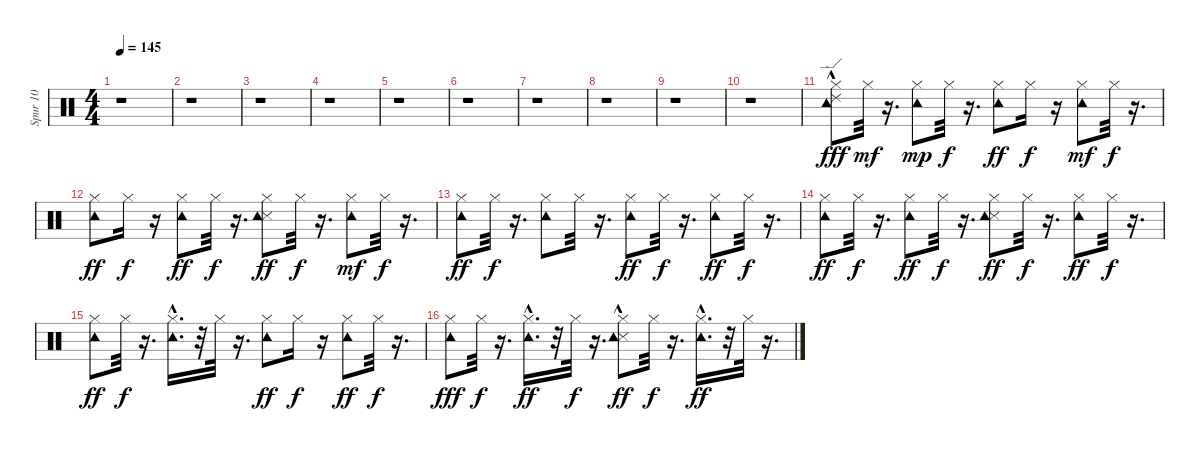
\track ("Spur 10" "Spur 10") {instrument percussion}
\staff {score}
\articulation defaults
\ts (4 4)
\tempo 145
\clef neutral
\ks c
r.1{dy fff} |
r.1 |
r.1 |
r.1 |
r.1 |
r.1 |
r.1 |
r.1 |
r.1 |
r.1 |
("Tambourine (hit)" "Hi-Hat (closed)" "Ride (edge) 2"{hac}).8 "Hi-Hat (closed)".32{dy mf} r.16{d} ("Tambourine (hit)" "Hi-Hat (closed)").8{dy mp} "Hi-Hat (closed)".32{dy f} r.16{d} ("Tambourine (hit)" "Hi-Hat (closed)").8{dy ff} "Hi-Hat (closed)".16{dy f} r.16 ("Tambourine (hit)" "Hi-Hat (closed)").8{dy mf} "Hi-Hat (closed)".32{dy f} r.16{d} |
("Tambourine (hit)" "Hi-Hat (closed)").8{dy ff} "Hi-Hat (closed)".16{dy f} r.16 ("Hi-Hat (closed)" "Tambourine (hit)").8{dy ff} "Hi-Hat (closed)".32{dy f} r.16{d} ("Snare (side stick) 3" "Tambourine (hit)" "Hi-Hat (closed)").8{dy ff} "Hi-Hat (closed)".32{dy f} r.16{d} ("Tambourine (hit)" "Hi-Hat (closed)").8{dy mf} "Hi-Hat (closed)".32{dy f} r.16{d} |
("Tambourine (hit)" "Hi-Hat (closed)").8{dy ff} "Hi-Hat (closed)".32{dy f} r.16{d} ("Tambourine (hit)" "Hi-Hat (closed)").8 "Hi-Hat (closed)".32 r.16{d} ("Tambourine (hit)" "Hi-Hat (closed)").8{dy ff} "Hi-Hat (closed)".32{dy f} r.16{d} ("Tambourine (hit)" "Hi-Hat (closed)").8{dy ff} "Hi-Hat (closed)".32{dy f} r.16{d} |
("Tambourine (hit)" "Hi-Hat (closed)").8{dy ff} "Hi-Hat (closed)".32{dy f} r.16{d} ("Tambourine (hit)" "Hi-Hat (closed)").8{dy ff} "Hi-Hat (closed)".32{dy f} r.16{d} ("Snare (side stick) 3" "Tambourine (hit)" "Hi-Hat (closed)").8{dy ff} "Hi-Hat (closed)".32{dy f} r.16{d} ("Tambourine (hit)" "Hi-Hat (closed)").8{dy ff} "Hi-Hat (closed)".32{dy f} r.16{d} |
("Tambourine (hit)" "Hi-Hat (closed)").8{dy ff} "Hi-Hat (closed)".32{dy f} r.16{d} ("Tambourine (hit)"{hac} "Hi-Hat (closed)").16{d} r.32 "Hi-Hat (closed)".32 r.16{d} ("Tambourine (hit)" "Hi-Hat (closed)").8{dy ff} "Hi-Hat (closed)".16{dy f} r.16 ("Tambourine (hit)" "Hi-Hat (closed)").8{dy ff} "Hi-Hat (closed)".32{dy f} r.16{d} |
("Tambourine (hit)" "Hi-Hat (closed)").8{dy fff} "Hi-Hat (closed)".32{dy f} r.16{d} ("Tambourine (hit)"{hac} "Hi-Hat (closed)").16{d dy ff} r.32 "Hi-Hat (closed)".32{dy f} r.16{d} ("Snare (side stick) 3" "Tambourine (hit)"{hac} "Hi-Hat (closed)").8{dy ff} "Hi-Hat (closed)".32{dy f} r.16{d} ("Tambourine (hit)"{hac} "Hi-Hat (closed)").16{d dy ff} r.32 "Hi-Hat (closed)".32 r.16{d}
